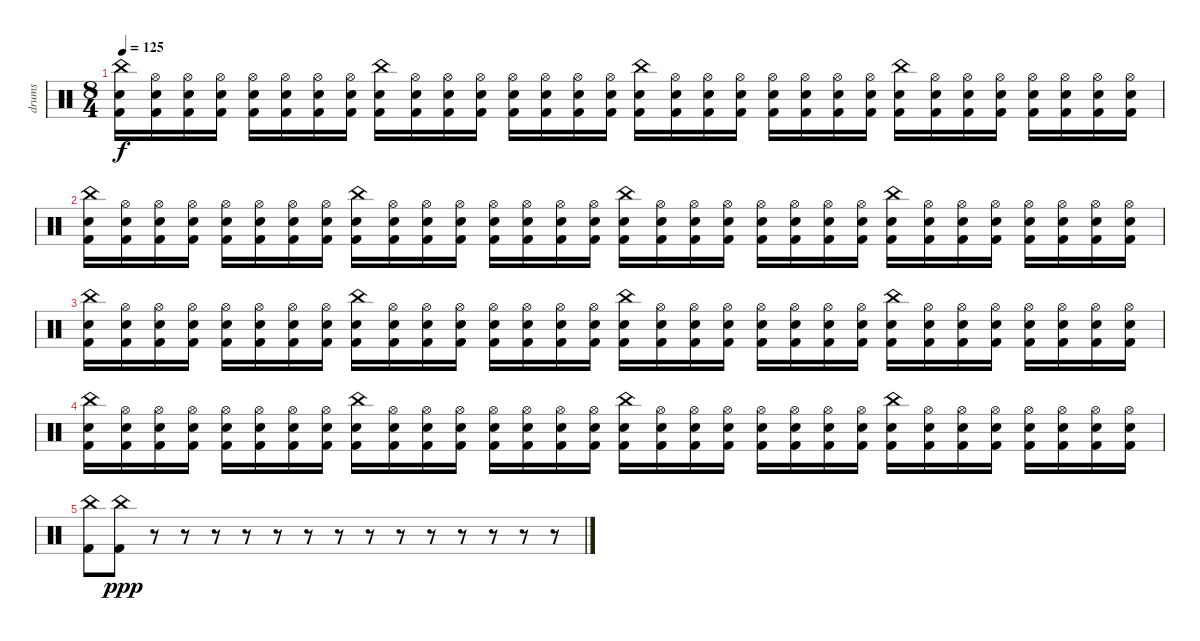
\track (" drums" " drums") {mute instrument percussion}
\staff {score}
\articulation defaults
\ts (8 4)
\tempo 125
\clef neutral
\ks c
("China (hit)" "Electric Snare (hit)" "Kick (hit) 2").16{dy f} ("Hi-Hat (open)" "Electric Snare (hit)" "Kick (hit) 2").16 ("Hi-Hat (open)" "Electric Snare (hit)" "Kick (hit) 2").16 ("Hi-Hat (open)" "Electric Snare (hit)" "Kick (hit) 2").16 ("Hi-Hat (open)" "Electric Snare (hit)" "Kick (hit) 2").16 ("Hi-Hat (open)" "Electric Snare (hit)" "Kick (hit) 2").16 ("Hi-Hat (open)" "Electric Snare (hit)" "Kick (hit) 2").16 ("Hi-Hat (open)" "Electric Snare (hit)" "Kick (hit) 2").16 ("China (hit)" "Electric Snare (hit)" "Kick (hit) 2").16 ("Hi-Hat (open)" "Electric Snare (hit)" "Kick (hit) 2").16 ("Hi-Hat (open)" "Electric Snare (hit)" "Kick (hit) 2").16 ("Hi-Hat (open)" "Electric Snare (hit)" "Kick (hit) 2").16 ("Hi-Hat (open)" "Electric Snare (hit)" "Kick (hit) 2").16 ("Hi-Hat (open)" "Electric Snare (hit)" "Kick (hit) 2").16 ("Hi-Hat (open)" "Electric Snare (hit)" "Kick (hit) 2").16 ("Hi-Hat (open)" "Electric Snare (hit)" "Kick (hit) 2").16 ("China (hit)" "Electric Snare (hit)" "Kick (hit) 2").16 ("Hi-Hat (open)" "Electric Snare (hit)" "Kick (hit) 2").16 ("Hi-Hat (open)" "Electric Snare (hit)" "Kick (hit) 2").16 ("Hi-Hat (open)" "Electric Snare (hit)" "Kick (hit) 2").16 ("Hi-Hat (open)" "Electric Snare (hit)" "Kick (hit) 2").16 ("Hi-Hat (open)" "Electric Snare (hit)" "Kick (hit) 2").16 ("Hi-Hat (open)" "Electric Snare (hit)" "Kick (hit) 2").16 ("Hi-Hat (open)" "Electric Snare (hit)" "Kick (hit) 2").16 ("China (hit)" "Electric Snare (hit)" "Kick (hit) 2").16 ("Hi-Hat (open)" "Electric Snare (hit)" "Kick (hit) 2").16 ("Hi-Hat (open)" "Electric Snare (hit)" "Kick (hit) 2").16 ("Hi-Hat (open)" "Electric Snare (hit)" "Kick (hit) 2").16 ("Hi-Hat (open)" "Electric Snare (hit)" "Kick (hit) 2").16 ("Hi-Hat (open)" "Electric Snare (hit)" "Kick (hit) 2").16 ("Hi-Hat (open)" "Electric Snare (hit)" "Kick (hit) 2").16 ("Hi-Hat (open)" "Electric Snare (hit)" "Kick (hit) 2").16 |
("China (hit)" "Electric Snare (hit)" "Kick (hit) 2").16 ("Hi-Hat (open)" "Electric Snare (hit)" "Kick (hit) 2").16 ("Hi-Hat (open)" "Electric Snare (hit)" "Kick (hit) 2").16 ("Hi-Hat (open)" "Electric Snare (hit)" "Kick (hit) 2").16 ("Hi-Hat (open)" "Electric Snare (hit)" "Kick (hit) 2").16 ("Hi-Hat (open)" "Electric Snare (hit)" "Kick (hit) 2").16 ("Hi-Hat (open)" "Electric Snare (hit)" "Kick (hit) 2").16 ("Hi-Hat (open)" "Electric Snare (hit)" "Kick (hit) 2").16 ("China (hit)" "Electric Snare (hit)" "Kick (hit) 2").16 ("Hi-Hat (open)" "Electric Snare (hit)" "Kick (hit) 2").16 ("Hi-Hat (open)" "Electric Snare (hit)" "Kick (hit) 2").16 ("Hi-Hat (open)" "Electric Snare (hit)" "Kick (hit) 2").16 ("Hi-Hat (open)" "Electric Snare (hit)" "Kick (hit) 2").16 ("Hi-Hat (open)" "Electric Snare (hit)" "Kick (hit) 2").16 ("Hi-Hat (open)" "Electric Snare (hit)" "Kick (hit) 2").16 ("Hi-Hat (open)" "Electric Snare (hit)" "Kick (hit) 2").16 ("China (hit)" "Electric Snare (hit)" "Kick (hit) 2").16 ("Hi-Hat (open)" "Electric Snare (hit)" "Kick (hit) 2").16 ("Hi-Hat (open)" "Electric Snare (hit)" "Kick (hit) 2").16 ("Hi-Hat (open)" "Electric Snare (hit)" "Kick (hit) 2").16 ("Hi-Hat (open)" "Electric Snare (hit)" "Kick (hit) 2").16 ("Hi-Hat (open)" "Electric Snare (hit)" "Kick (hit) 2").16 ("Hi-Hat (open)" "Electric Snare (hit)" "Kick (hit) 2").16 ("Hi-Hat (open)" "Electric Snare (hit)" "Kick (hit) 2").16 ("China (hit)" "Electric Snare (hit)" "Kick (hit) 2").16 ("Hi-Hat (open)" "Electric Snare (hit)" "Kick (hit) 2").16 ("Hi-Hat (open)" "Electric Snare (hit)" "Kick (hit) 2").16 ("Hi-Hat (open)" "Electric Snare (hit)" "Kick (hit) 2").16 ("Hi-Hat (open)" "Electric Snare (hit)" "Kick (hit) 2").16 ("Hi-Hat (open)" "Electric Snare (hit)" "Kick (hit) 2").16 ("Hi-Hat (open)" "Electric Snare (hit)" "Kick (hit) 2").16 ("Hi-Hat (open)" "Electric Snare (hit)" "Kick (hit) 2").16 |
("China (hit)" "Electric Snare (hit)" "Kick (hit) 2").16 ("Hi-Hat (open)" "Electric Snare (hit)" "Kick (hit) 2").16 ("Hi-Hat (open)" "Electric Snare (hit)" "Kick (hit) 2").16 ("Hi-Hat (open)" "Electric Snare (hit)" "Kick (hit) 2").16 ("Hi-Hat (open)" "Electric Snare (hit)" "Kick (hit) 2").16 ("Hi-Hat (open)" "Electric Snare (hit)" "Kick (hit) 2").16 ("Hi-Hat (open)" "Electric Snare (hit)" "Kick (hit) 2").16 ("Hi-Hat (open)" "Electric Snare (hit)" "Kick (hit) 2").16 ("China (hit)" "Electric Snare (hit)" "Kick (hit) 2").16 ("Hi-Hat (open)" "Electric Snare (hit)" "Kick (hit) 2").16 ("Hi-Hat (open)" "Electric Snare (hit)" "Kick (hit) 2").16 ("Hi-Hat (open)" "Electric Snare (hit)" "Kick (hit) 2").16 ("Hi-Hat (open)" "Electric Snare (hit)" "Kick (hit) 2").16 ("Hi-Hat (open)" "Electric Snare (hit)" "Kick (hit) 2").16 ("Hi-Hat (open)" "Electric Snare (hit)" "Kick (hit) 2").16 ("Hi-Hat (open)" "Electric Snare (hit)" "Kick (hit) 2").16 ("China (hit)" "Electric Snare (hit)" "Kick (hit) 2").16 ("Hi-Hat (open)" "Electric Snare (hit)" "Kick (hit) 2").16 ("Hi-Hat (open)" "Electric Snare (hit)" "Kick (hit) 2").16 ("Hi-Hat (open)" "Electric Snare (hit)" "Kick (hit) 2").16 ("Hi-Hat (open)" "Electric Snare (hit)" "Kick (hit) 2").16 ("Hi-Hat (open)" "Electric Snare (hit)" "Kick (hit) 2").16 ("Hi-Hat (open)" "Electric Snare (hit)" "Kick (hit) 2").16 ("Hi-Hat (open)" "Electric Snare (hit)" "Kick (hit) 2").16 ("China (hit)" "Electric Snare (hit)" "Kick (hit) 2").16 ("Hi-Hat (open)" "Electric Snare (hit)" "Kick (hit) 2").16 ("Hi-Hat (open)" "Electric Snare (hit)" "Kick (hit) 2").16 ("Hi-Hat (open)" "Electric Snare (hit)" "Kick (hit) 2").16 ("Hi-Hat (open)" "Electric Snare (hit)" "Kick (hit) 2").16 ("Hi-Hat (open)" "Electric Snare (hit)" "Kick (hit) 2").16 ("Hi-Hat (open)" "Electric Snare (hit)" "Kick (hit) 2").16 ("Hi-Hat (open)" "Electric Snare (hit)" "Kick (hit) 2").16 |
("China (hit)" "Electric Snare (hit)" "Kick (hit) 2").16 ("Hi-Hat (open)" "Electric Snare (hit)" "Kick (hit) 2").16 ("Hi-Hat (open)" "Electric Snare (hit)" "Kick (hit) 2").16 ("Hi-Hat (open)" "Electric Snare (hit)" "Kick (hit) 2").16 ("Hi-Hat (open)" "Electric Snare (hit)" "Kick (hit) 2").16 ("Hi-Hat (open)" "Electric Snare (hit)" "Kick (hit) 2").16 ("Hi-Hat (open)" "Electric Snare (hit)" "Kick (hit) 2").16 ("Hi-Hat (open)" "Electric Snare (hit)" "Kick (hit) 2").16 ("China (hit)" "Electric Snare (hit)" "Kick (hit) 2").16 ("Hi-Hat (open)" "Electric Snare (hit)" "Kick (hit) 2").16 ("Hi-Hat (open)" "Electric Snare (hit)" "Kick (hit) 2").16 ("Hi-Hat (open)" "Electric Snare (hit)" "Kick (hit) 2").16 ("Hi-Hat (open)" "Electric Snare (hit)" "Kick (hit) 2").16 ("Hi-Hat (open)" "Electric Snare (hit)" "Kick (hit) 2").16 ("Hi-Hat (open)" "Electric Snare (hit)" "Kick (hit) 2").16 ("Hi-Hat (open)" "Electric Snare (hit)" "Kick (hit) 2").16 ("China (hit)" "Electric Snare (hit)" "Kick (hit) 2").16 ("Hi-Hat (open)" "Electric Snare (hit)" "Kick (hit) 2").16 ("Hi-Hat (open)" "Electric Snare (hit)" "Kick (hit) 2").16 ("Hi-Hat (open)" "Electric Snare (hit)" "Kick (hit) 2").16 ("Hi-Hat (open)" "Electric Snare (hit)" "Kick (hit) 2").16 ("Hi-Hat (open)" "Electric Snare (hit)" "Kick (hit) 2").16 ("Hi-Hat (open)" "Electric Snare (hit)" "Kick (hit) 2").16 ("Hi-Hat (open)" "Electric Snare (hit)" "Kick (hit) 2").16 ("China (hit)" "Electric Snare (hit)" "Kick (hit) 2").16 ("Hi-Hat (open)" "Electric Snare (hit)" "Kick (hit) 2").16 ("Hi-Hat (open)" "Electric Snare (hit)" "Kick (hit) 2").16 ("Hi-Hat (open)" "Electric Snare (hit)" "Kick (hit) 2").16 ("Hi-Hat (open)" "Electric Snare (hit)" "Kick (hit) 2").16 ("Hi-Hat (open)" "Electric Snare (hit)" "Kick (hit) 2").16 ("Hi-Hat (open)" "Electric Snare (hit)" "Kick (hit) 2").16 ("Hi-Hat (open)" "Electric Snare (hit)" "Kick (hit) 2").16 |
("China (hit)" "Kick (hit) 2").8 ("China (hit)" "Kick (hit) 2").8{dy ppp} r.8 r.8 r.8 r.8 r.8 r.8 r.8 r.8 r.8 r.8 r.8 r.8 r.8 r.8
